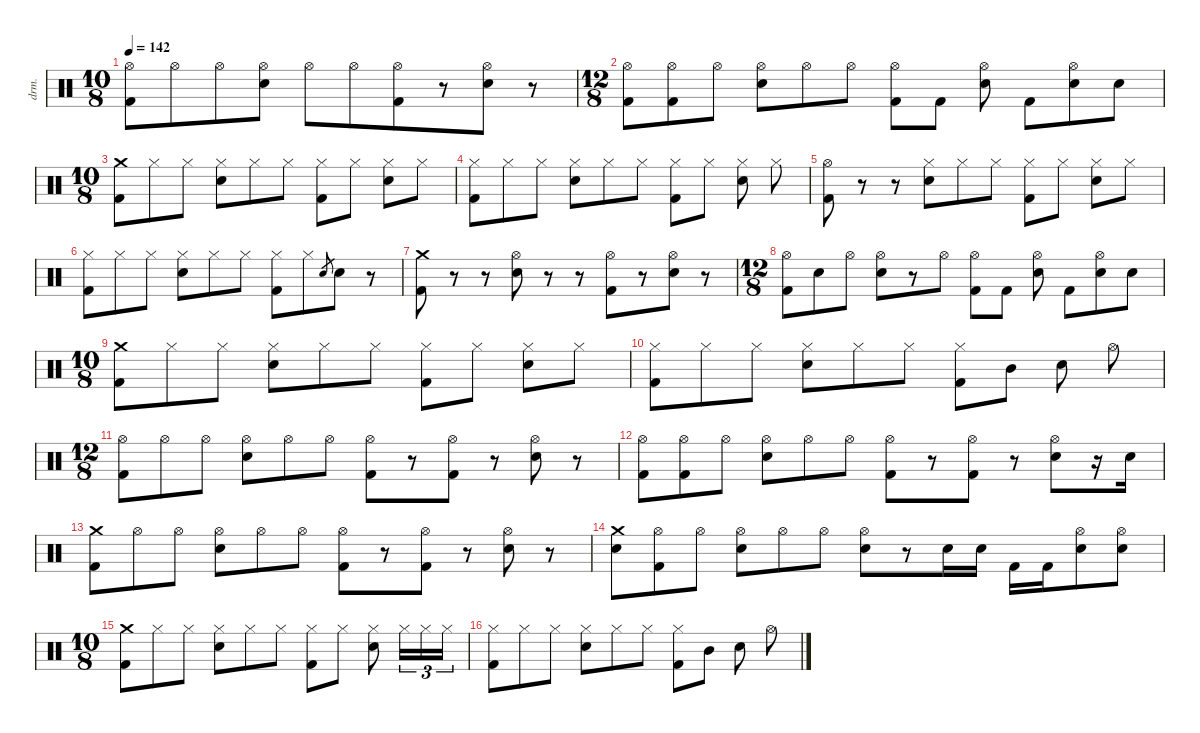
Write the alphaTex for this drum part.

\defaultSystemsLayout 4
\hideDynamics
\bracketExtendMode nobrackets
\otherSystemsTrackNameOrientation horizontal
\track ("Drums" "drm.") {instrument percussion}
\staff {score}
\articulation defaults
\ts (10 8)
\tempo 142
\clef neutral
\ks c
("Hi-Hat (open)" "Kick (hit) 2").8{dy f beam Down} "Hi-Hat (open)".8{dy mf beam Down} "Hi-Hat (open)".8{beam Down} ("Hi-Hat (open)" "Snare (hit) 2").8{dy f beam Down} "Hi-Hat (open)".8{dy mf beam Down} "Hi-Hat (open)".8{beam Down} ("Hi-Hat (open)" "Kick (hit) 2").8{dy f beam Down beam merge} r.8{beam Down beam split} ("Hi-Hat (open)" "Snare (hit) 2").8{beam Down} r.8{beam Down} |
\ts (12 8)
\beaming (8 3 3 3 3)
("Hi-Hat (open)" "Kick (hit) 2").8{beam Down} ("Hi-Hat (open)" "Kick (hit) 2").8{dy mf beam Down} "Hi-Hat (open)".8{beam Down} ("Hi-Hat (open)" "Snare (hit) 2").8{dy f beam Down} "Hi-Hat (open)".8{dy mf beam Down} "Hi-Hat (open)".8{beam Down} ("Hi-Hat (open)" "Kick (hit) 2").8{dy f beam Down beam merge} "Kick (hit) 2".8{beam Down beam split} ("Hi-Hat (open)" "Snare (hit) 2").8{beam Down} "Kick (hit) 2".8{beam Down} ("Hi-Hat (open)" "Snare (hit) 2").8{beam Down} "Snare (hit) 2".8{beam Down} |
\ts (10 8)
\beaming (8 3 3 3 3)
("Crash medium (hit)" "Kick (hit) 2").8{beam Down beam merge} "Hi-Hat (closed)".8{beam Down beam merge} "Hi-Hat (closed)".8{beam Down} ("Hi-Hat (closed)" "Snare (hit) 2").8{beam Down beam merge} "Hi-Hat (closed)".8{beam Down beam merge} "Hi-Hat (closed)".8{beam Down} ("Hi-Hat (closed)" "Kick (hit) 2").8{beam Down beam merge} "Hi-Hat (closed)".8{beam Down beam split} ("Hi-Hat (closed)" "Snare (hit) 2").8{beam Down beam merge} "Hi-Hat (closed)".8{beam Down} |
("Hi-Hat (closed)" "Kick (hit) 2").8{beam Down} "Hi-Hat (closed)".8{beam Down} "Hi-Hat (closed)".8{beam Down} ("Hi-Hat (closed)" "Snare (hit) 2").8{beam Down} "Hi-Hat (closed)".8{beam Down} "Hi-Hat (closed)".8{beam Down} ("Hi-Hat (closed)" "Kick (hit) 2").8{beam Down beam merge} "Hi-Hat (closed)".8{beam Down beam split} ("Hi-Hat (closed)" "Snare (hit) 2").8{beam Down} "Hi-Hat (closed)".8{beam Down} |
("Hi-Hat (open)" "Kick (hit) 2").8{beam Down} r.8{beam Down} r.8{beam Down} ("Hi-Hat (closed)" "Snare (hit) 2").8{beam Down} "Hi-Hat (closed)".8{beam Down} "Hi-Hat (closed)".8{beam Down} ("Hi-Hat (closed)" "Kick (hit) 2").8{beam Down beam merge} "Hi-Hat (closed)".8{beam Down beam split} ("Hi-Hat (closed)" "Snare (hit) 2").8{beam Down beam merge} "Hi-Hat (closed)".8{beam Down} |
("Hi-Hat (closed)" "Kick (hit) 2").8{beam Down} "Hi-Hat (closed)".8{beam Down} "Hi-Hat (closed)".8{beam Down} ("Hi-Hat (closed)" "Snare (hit) 2").8{beam Down} "Hi-Hat (closed)".8{beam Down} "Hi-Hat (closed)".8{beam Down} ("Hi-Hat (closed)" "Kick (hit) 2").8{beam Down beam merge} "Hi-Hat (closed)".8{beam Down} "Electric Snare (hit)".8{gr dy mf beam Up beam split} "Snare (hit) 2".8{dy f beam Down} r.8{beam Down} |
("Crash medium (hit)" "Kick (hit) 2").8{beam Down} r.8{beam Down} r.8{beam Down} ("Hi-Hat (open)" "Snare (hit) 2").8{beam Down} r.8{beam Down} r.8{beam Down} ("Hi-Hat (open)" "Kick (hit) 2").8{beam Down beam merge} r.8{beam Down beam split} ("Hi-Hat (open)" "Snare (hit) 2").8{beam Down} r.8{beam Down} |
\ts (12 8)
\beaming (8 3 3 3 3)
("Hi-Hat (open)" "Kick (hit) 2").8{beam Down} "Snare (hit) 2".8{beam Down} "Hi-Hat (open)".8{dy mf beam Down} ("Hi-Hat (open)" "Snare (hit) 2").8{dy f beam Down} r.8{beam Down} "Hi-Hat (open)".8{dy mf beam Down} ("Hi-Hat (open)" "Kick (hit) 2").8{dy f beam Down} "Kick (hit) 2".8{beam Down beam split} ("Hi-Hat (open)" "Snare (hit) 2").8{beam Down} "Kick (hit) 2".8{beam Down} ("Hi-Hat (open)" "Snare (hit) 2").8{beam Down} "Snare (hit) 2".8{beam Down} |
\ts (10 8)
\beaming (8 3 3 3 3)
("Crash medium (hit)" "Kick (hit) 2").8{beam Down beam merge} "Hi-Hat (closed)".8{beam Down beam merge} "Hi-Hat (closed)".8{beam Down} ("Hi-Hat (closed)" "Snare (hit) 2").8{beam Down beam merge} "Hi-Hat (closed)".8{beam Down beam merge} "Hi-Hat (closed)".8{beam Down} ("Hi-Hat (closed)" "Kick (hit) 2").8{beam Down beam merge} "Hi-Hat (closed)".8{beam Down beam split} ("Hi-Hat (closed)" "Snare (hit) 2").8{beam Down beam merge} "Hi-Hat (closed)".8{beam Down} |
("Hi-Hat (closed)" "Kick (hit) 2").8{beam Down} "Hi-Hat (closed)".8{beam Down} "Hi-Hat (closed)".8{beam Down} ("Hi-Hat (closed)" "Snare (hit) 2").8{beam Down} "Hi-Hat (closed)".8{beam Down} "Hi-Hat (closed)".8{beam Down} ("Hi-Hat (closed)" "Kick (hit) 2").8{beam Down beam merge} "Mid Tom (hit)".8{beam Down beam split} "Snare (hit) 2".8{beam Down} "Hi-Hat (open)".8{beam Down} |
\ts (12 8)
\beaming (8 3 3 3 3)
("Hi-Hat (open)" "Kick (hit) 2").8{beam Down} "Hi-Hat (open)".8{beam Down} "Hi-Hat (open)".8{beam Down} ("Hi-Hat (open)" "Snare (hit) 2").8{beam Down} "Hi-Hat (open)".8{beam Down} "Hi-Hat (open)".8{beam Down} ("Hi-Hat (open)" "Kick (hit) 2").8{beam Down beam merge} r.8{beam Down beam split} ("Hi-Hat (open)" "Kick (hit) 2").8{beam Down} r.8{beam Down} ("Hi-Hat (open)" "Snare (hit) 2").8{beam Down} r.8{beam Down} |
("Hi-Hat (open)" "Kick (hit) 2").8{beam Down} ("Hi-Hat (open)" "Kick (hit) 2").8{beam Down} "Hi-Hat (open)".8{beam Down} ("Hi-Hat (open)" "Snare (hit) 2").8{beam Down} "Hi-Hat (open)".8{beam Down} "Hi-Hat (open)".8{beam Down} ("Hi-Hat (open)" "Kick (hit) 2").8{beam Down beam merge} r.8{beam Down beam split} ("Hi-Hat (open)" "Kick (hit) 2").8{beam Down} r.8{beam Down} ("Hi-Hat (open)" "Snare (hit) 2").8{beam Down} r.16{beam Down} "Snare (hit) 2".16{beam Down} |
("Crash medium (hit)" "Kick (hit) 2").8{beam Down} "Hi-Hat (open)".8{beam Down} "Hi-Hat (open)".8{beam Down} ("Hi-Hat (open)" "Snare (hit) 2").8{beam Down} "Hi-Hat (open)".8{beam Down} "Hi-Hat (open)".8{beam Down} ("Hi-Hat (open)" "Kick (hit) 2").8{beam Down beam merge} r.8{beam Down beam split} ("Hi-Hat (open)" "Kick (hit) 2").8{beam Down} r.8{beam Down} ("Hi-Hat (open)" "Snare (hit) 2").8{beam Down} r.8{beam Down} |
("Crash medium (hit)" "Snare (hit) 2").8{beam Down} ("Hi-Hat (open)" "Kick (hit) 2").8{beam Down} "Hi-Hat (open)".8{beam Down} ("Hi-Hat (open)" "Snare (hit) 2").8{beam Down} "Hi-Hat (open)".8{beam Down} "Hi-Hat (open)".8{beam Down} ("Hi-Hat (open)" "Snare (hit) 2").8{beam Down beam merge} r.8{beam Down} "Snare (hit) 2".16{beam Down} "Snare (hit) 2".16{beam Down} "Kick (hit) 2".16{beam Down} "Kick (hit) 2".16{beam Down} ("Hi-Hat (open)" "Snare (hit) 2").8{beam Down} ("Hi-Hat (open)" "Snare (hit) 2").8{beam Down} |
\ts (10 8)
\beaming (8 3 3 3 3)
("Crash medium (hit)" "Kick (hit) 2").8{beam Down beam merge} "Hi-Hat (closed)".8{beam Down beam merge} "Hi-Hat (closed)".8{beam Down} ("Hi-Hat (closed)" "Snare (hit) 2").8{beam Down beam merge} "Hi-Hat (closed)".8{beam Down beam merge} "Hi-Hat (closed)".8{beam Down} ("Hi-Hat (closed)" "Kick (hit) 2").8{beam Down beam merge} "Hi-Hat (closed)".8{beam Down beam split} ("Hi-Hat (closed)" "Snare (hit) 2").8{beam Down} "Hi-Hat (closed)".16{tu (3 2) beam Down} "Hi-Hat (closed)".16{tu (3 2) beam Down} "Hi-Hat (closed)".16{tu (3 2) beam Down} |
("Hi-Hat (closed)" "Kick (hit) 2").8{beam Down} "Hi-Hat (closed)".8{beam Down} "Hi-Hat (closed)".8{beam Down} ("Hi-Hat (closed)" "Snare (hit) 2").8{beam Down} "Hi-Hat (closed)".8{beam Down} "Hi-Hat (closed)".8{beam Down} ("Hi-Hat (closed)" "Kick (hit) 2").8{beam Down beam merge} "Mid Tom (hit)".8{beam Down beam split} "Snare (hit) 2".8{beam Down} "Hi-Hat (open)".8{beam Down}
